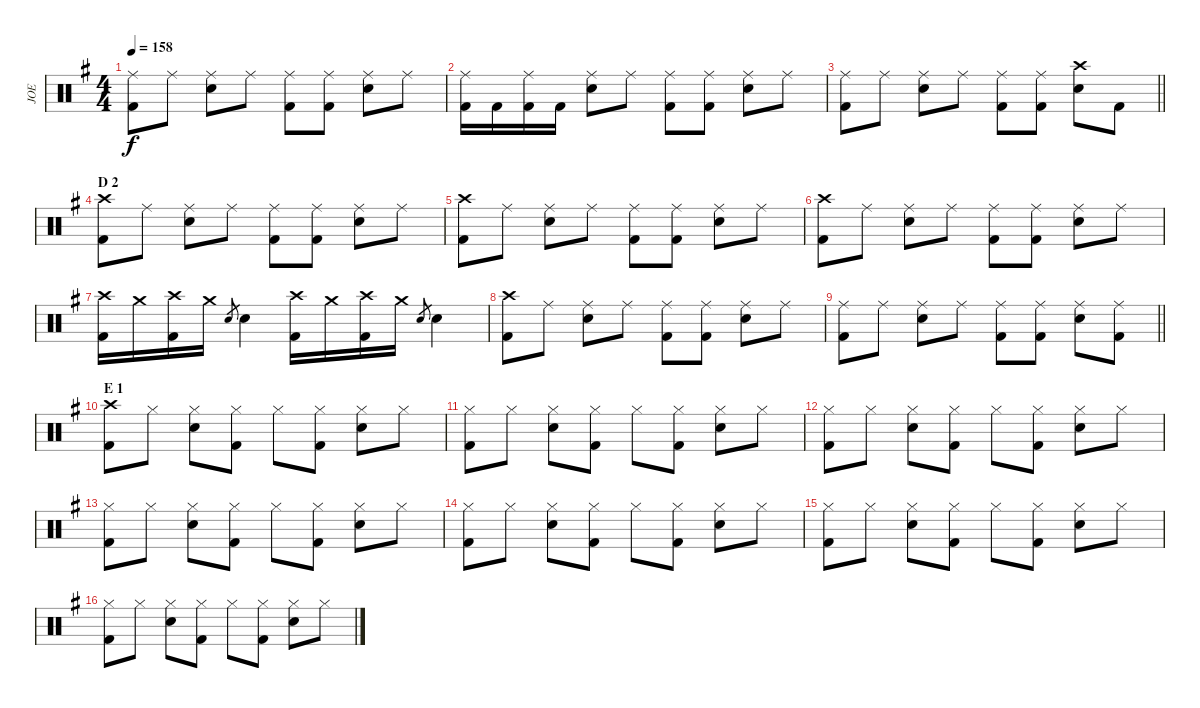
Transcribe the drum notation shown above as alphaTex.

\track ("JOE" "JOE") {instrument percussion}
\staff {score}
\articulation defaults
\ts (4 4)
\tempo 158
\clef neutral
\ks g
("Ride (middle)" "Kick (hit) 2").8{dy f} "Ride (middle)".8 ("Ride (middle)" "Snare (hit) 2").8 "Ride (middle)".8 ("Ride (middle)" "Kick (hit) 2").8 ("Ride (middle)" "Kick (hit) 2").8 ("Ride (middle)" "Snare (hit) 2").8 "Ride (middle)".8 |
("Ride (middle)" "Kick (hit) 2").16 "Kick (hit) 2".16 ("Ride (middle)" "Kick (hit) 2").16 "Kick (hit) 2".16 ("Ride (middle)" "Snare (hit) 2").8 "Ride (middle)".8 ("Ride (middle)" "Kick (hit) 2").8 ("Ride (middle)" "Kick (hit) 2").8 ("Ride (middle)" "Snare (hit) 2").8 "Ride (middle)".8 |
\barLineRight lightlight
("Ride (middle)" "Kick (hit) 2").8 "Ride (middle)".8 ("Ride (middle)" "Snare (hit) 2").8 "Ride (middle)".8 ("Ride (middle)" "Kick (hit) 2").8 ("Ride (middle)" "Kick (hit) 2").8 ("Crash high (hit)" "Snare (hit) 2").8 "Kick (hit) 2".8 |
\section ("" "D 2")
("Crash high (hit)" "Kick (hit) 2").8 "Ride (middle)".8 ("Ride (middle)" "Snare (hit) 2").8 "Ride (middle)".8 ("Ride (middle)" "Kick (hit) 2").8 ("Ride (middle)" "Kick (hit) 2").8 ("Ride (middle)" "Snare (hit) 2").8 "Ride (middle)".8 |
("Crash high (hit)" "Kick (hit) 2").8 "Ride (middle)".8 ("Ride (middle)" "Snare (hit) 2").8 "Ride (middle)".8 ("Ride (middle)" "Kick (hit) 2").8 ("Ride (middle)" "Kick (hit) 2").8 ("Ride (middle)" "Snare (hit) 2").8 "Ride (middle)".8 |
("Crash high (hit)" "Kick (hit) 2").8 "Ride (middle)".8 ("Ride (middle)" "Snare (hit) 2").8 "Ride (middle)".8 ("Ride (middle)" "Kick (hit) 2").8 ("Ride (middle)" "Kick (hit) 2").8 ("Ride (middle)" "Snare (hit) 2").8 "Ride (middle)".8 |
("Crash high (hit)" "Kick (hit) 2").16 "Crash medium (hit)".16 ("Crash high (hit)" "Kick (hit) 2").16 "Crash medium (hit)".16 "Snare (hit) 2".8{gr} "Snare (hit) 2".4 ("Crash high (hit)" "Kick (hit) 2").16 "Crash medium (hit)".16 ("Crash high (hit)" "Kick (hit) 2").16 "Crash medium (hit)".16 "Snare (hit) 2".8{gr} "Snare (hit) 2".4 |
("Crash high (hit)" "Kick (hit) 2").8 "Ride (middle)".8 ("Ride (middle)" "Snare (hit) 2").8 "Ride (middle)".8 ("Ride (middle)" "Kick (hit) 2").8 ("Ride (middle)" "Kick (hit) 2").8 ("Ride (middle)" "Snare (hit) 2").8 "Ride (middle)".8 |
\barLineRight lightlight
("Ride (middle)" "Kick (hit) 2").8 "Ride (middle)".8 ("Ride (middle)" "Snare (hit) 2").8 "Ride (middle)".8 ("Ride (middle)" "Kick (hit) 2").8 ("Ride (middle)" "Kick (hit) 2").8 ("Ride (middle)" "Snare (hit) 2").8 ("Ride (middle)" "Kick (hit) 2").8 |
\section ("" "E 1")
("Crash high (hit)" "Kick (hit) 2").8 "Hi-Hat (closed)".8 ("Hi-Hat (closed)" "Snare (hit) 2").8 ("Hi-Hat (closed)" "Kick (hit) 2").8 "Hi-Hat (closed)".8 ("Hi-Hat (closed)" "Kick (hit) 2").8 ("Hi-Hat (closed)" "Snare (hit) 2").8 "Hi-Hat (closed)".8 |
("Hi-Hat (closed)" "Kick (hit) 2").8 "Hi-Hat (closed)".8 ("Hi-Hat (closed)" "Snare (hit) 2").8 ("Hi-Hat (closed)" "Kick (hit) 2").8 "Hi-Hat (closed)".8 ("Hi-Hat (closed)" "Kick (hit) 2").8 ("Hi-Hat (closed)" "Snare (hit) 2").8 "Hi-Hat (closed)".8 |
("Hi-Hat (closed)" "Kick (hit) 2").8 "Hi-Hat (closed)".8 ("Hi-Hat (closed)" "Snare (hit) 2").8 ("Hi-Hat (closed)" "Kick (hit) 2").8 "Hi-Hat (closed)".8 ("Hi-Hat (closed)" "Kick (hit) 2").8 ("Hi-Hat (closed)" "Snare (hit) 2").8 "Hi-Hat (closed)".8 |
("Hi-Hat (closed)" "Kick (hit) 2").8 "Hi-Hat (closed)".8 ("Hi-Hat (closed)" "Snare (hit) 2").8 ("Hi-Hat (closed)" "Kick (hit) 2").8 "Hi-Hat (closed)".8 ("Hi-Hat (closed)" "Kick (hit) 2").8 ("Hi-Hat (closed)" "Snare (hit) 2").8 "Hi-Hat (closed)".8 |
("Hi-Hat (closed)" "Kick (hit) 2").8 "Hi-Hat (closed)".8 ("Hi-Hat (closed)" "Snare (hit) 2").8 ("Hi-Hat (closed)" "Kick (hit) 2").8 "Hi-Hat (closed)".8 ("Hi-Hat (closed)" "Kick (hit) 2").8 ("Hi-Hat (closed)" "Snare (hit) 2").8 "Hi-Hat (closed)".8 |
("Hi-Hat (closed)" "Kick (hit) 2").8 "Hi-Hat (closed)".8 ("Hi-Hat (closed)" "Snare (hit) 2").8 ("Hi-Hat (closed)" "Kick (hit) 2").8 "Hi-Hat (closed)".8 ("Hi-Hat (closed)" "Kick (hit) 2").8 ("Hi-Hat (closed)" "Snare (hit) 2").8 "Hi-Hat (closed)".8 |
("Hi-Hat (closed)" "Kick (hit) 2").8 "Hi-Hat (closed)".8 ("Hi-Hat (closed)" "Snare (hit) 2").8 ("Hi-Hat (closed)" "Kick (hit) 2").8 "Hi-Hat (closed)".8 ("Hi-Hat (closed)" "Kick (hit) 2").8 ("Hi-Hat (closed)" "Snare (hit) 2").8 "Hi-Hat (closed)".8
